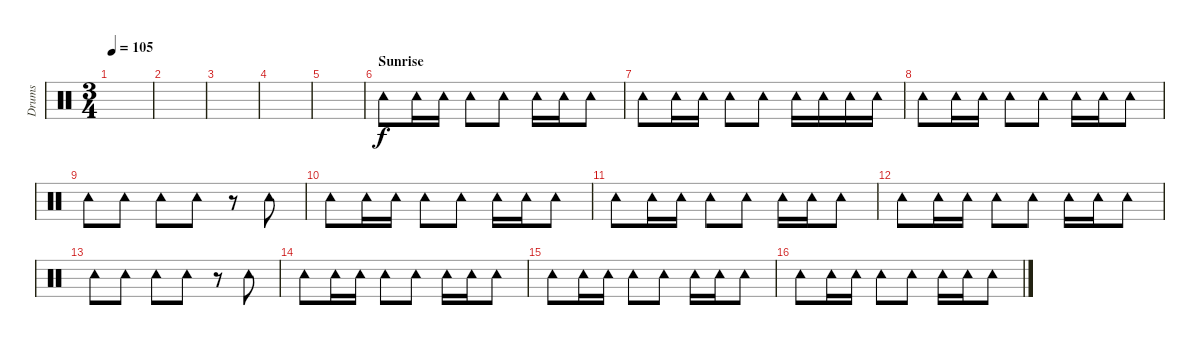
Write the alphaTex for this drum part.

\track ("Drums" "Drums") {instrument percussion}
\staff {score}
\articulation defaults
\ts (3 4)
\tempo 105
\clef neutral
\ks c
|
|
|
|
|
\section ("" "Sunrise")
"Tambourine (hit)".8 "Tambourine (hit)".16 "Tambourine (hit)".16 "Tambourine (hit)".8 "Tambourine (hit)".8 "Tambourine (hit)".16 "Tambourine (hit)".16 "Tambourine (hit)".8 |
"Tambourine (hit)".8 "Tambourine (hit)".16 "Tambourine (hit)".16 "Tambourine (hit)".8 "Tambourine (hit)".8 "Tambourine (hit)".16 "Tambourine (hit)".16 "Tambourine (hit)".16 "Tambourine (hit)".16 |
"Tambourine (hit)".8 "Tambourine (hit)".16 "Tambourine (hit)".16 "Tambourine (hit)".8 "Tambourine (hit)".8 "Tambourine (hit)".16 "Tambourine (hit)".16 "Tambourine (hit)".8 |
"Tambourine (hit)".8 "Tambourine (hit)".8 "Tambourine (hit)".8 "Tambourine (hit)".8 r.8 "Tambourine (hit)".8 |
"Tambourine (hit)".8 "Tambourine (hit)".16 "Tambourine (hit)".16 "Tambourine (hit)".8 "Tambourine (hit)".8 "Tambourine (hit)".16 "Tambourine (hit)".16 "Tambourine (hit)".8 |
"Tambourine (hit)".8 "Tambourine (hit)".16 "Tambourine (hit)".16 "Tambourine (hit)".8 "Tambourine (hit)".8 "Tambourine (hit)".16 "Tambourine (hit)".16 "Tambourine (hit)".8 |
"Tambourine (hit)".8 "Tambourine (hit)".16 "Tambourine (hit)".16 "Tambourine (hit)".8 "Tambourine (hit)".8 "Tambourine (hit)".16 "Tambourine (hit)".16 "Tambourine (hit)".8 |
"Tambourine (hit)".8 "Tambourine (hit)".8 "Tambourine (hit)".8 "Tambourine (hit)".8 r.8 "Tambourine (hit)".8 |
"Tambourine (hit)".8 "Tambourine (hit)".16 "Tambourine (hit)".16 "Tambourine (hit)".8 "Tambourine (hit)".8 "Tambourine (hit)".16 "Tambourine (hit)".16 "Tambourine (hit)".8 |
"Tambourine (hit)".8 "Tambourine (hit)".16 "Tambourine (hit)".16 "Tambourine (hit)".8 "Tambourine (hit)".8 "Tambourine (hit)".16 "Tambourine (hit)".16 "Tambourine (hit)".8 |
"Tambourine (hit)".8 "Tambourine (hit)".16 "Tambourine (hit)".16 "Tambourine (hit)".8 "Tambourine (hit)".8 "Tambourine (hit)".16 "Tambourine (hit)".16 "Tambourine (hit)".8
